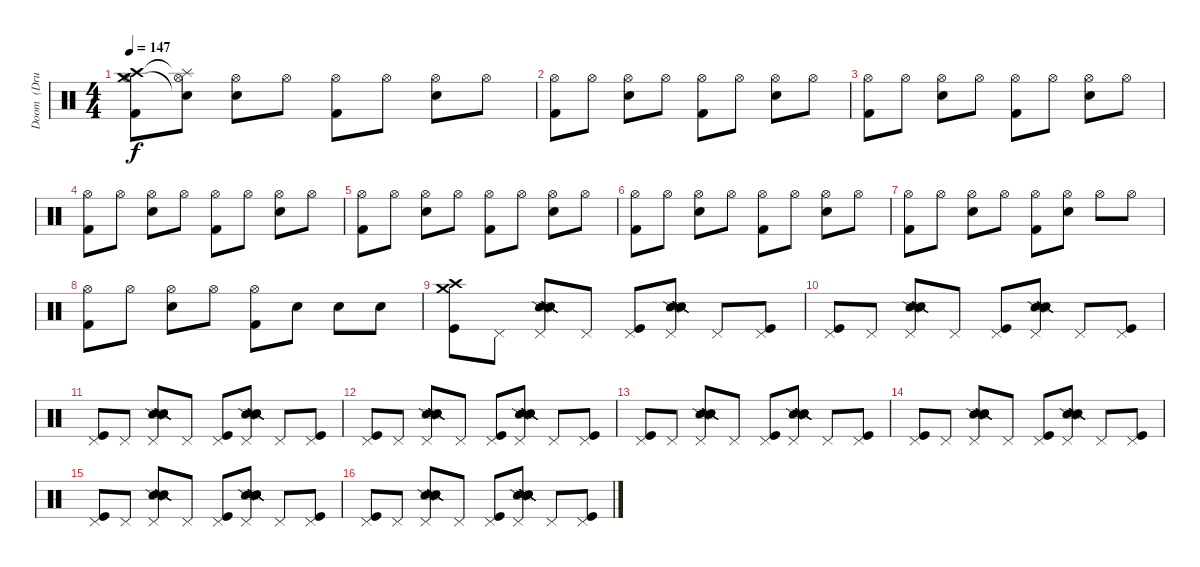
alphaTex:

\track ("Doom  (Drums)" "Doom  (Dru") {instrument percussion}
\staff {score}
\articulation defaults
\ts (4 4)
\tempo 147
\clef neutral
\ks c
("Crash high (hit)" "Hi-Hat (open)" "Crash medium (hit)" "Kick (hit) 2").8{dy f} ("Splash (hit)"{t} "Hi-Hat (open)" "Snare (hit)"{t}).8 ("Hi-Hat (open)" "Electric Snare (hit)").8 "Hi-Hat (open)".8 ("Hi-Hat (open)" "Kick (hit) 2").8 "Hi-Hat (open)".8 ("Hi-Hat (open)" "Electric Snare (hit)").8 "Hi-Hat (open)".8 |
("Hi-Hat (open)" "Kick (hit) 2").8 "Hi-Hat (open)".8 ("Hi-Hat (open)" "Electric Snare (hit)").8 "Hi-Hat (open)".8 ("Hi-Hat (open)" "Kick (hit) 2").8 "Hi-Hat (open)".8 ("Hi-Hat (open)" "Electric Snare (hit)").8 "Hi-Hat (open)".8 |
("Hi-Hat (open)" "Kick (hit) 2").8 "Hi-Hat (open)".8 ("Hi-Hat (open)" "Electric Snare (hit)").8 "Hi-Hat (open)".8 ("Hi-Hat (open)" "Kick (hit) 2").8 "Hi-Hat (open)".8 ("Hi-Hat (open)" "Electric Snare (hit)").8 "Hi-Hat (open)".8 |
("Hi-Hat (open)" "Kick (hit) 2").8 "Hi-Hat (open)".8 ("Hi-Hat (open)" "Electric Snare (hit)").8 "Hi-Hat (open)".8 ("Hi-Hat (open)" "Kick (hit) 2").8 "Hi-Hat (open)".8 ("Hi-Hat (open)" "Electric Snare (hit)").8 "Hi-Hat (open)".8 |
("Hi-Hat (open)" "Kick (hit) 2").8 "Hi-Hat (open)".8 ("Hi-Hat (open)" "Electric Snare (hit)").8 "Hi-Hat (open)".8 ("Hi-Hat (open)" "Kick (hit) 2").8 "Hi-Hat (open)".8 ("Hi-Hat (open)" "Electric Snare (hit)").8 "Hi-Hat (open)".8 |
("Hi-Hat (open)" "Kick (hit) 2").8 "Hi-Hat (open)".8 ("Hi-Hat (open)" "Electric Snare (hit)").8 "Hi-Hat (open)".8 ("Hi-Hat (open)" "Kick (hit) 2").8 "Hi-Hat (open)".8 ("Hi-Hat (open)" "Electric Snare (hit)").8 "Hi-Hat (open)".8 |
("Hi-Hat (open)" "Kick (hit) 2").8 "Hi-Hat (open)".8 ("Hi-Hat (open)" "Electric Snare (hit)").8 "Hi-Hat (open)".8 ("Hi-Hat (open)" "Kick (hit) 2").8 ("Hi-Hat (open)" "Electric Snare (hit)").8 "Hi-Hat (open)".8 "Hi-Hat (open)".8 |
("Hi-Hat (open)" "Kick (hit) 2").8 "Hi-Hat (open)".8 ("Hi-Hat (open)" "Electric Snare (hit)").8 "Hi-Hat (open)".8 ("Hi-Hat (open)" "Kick (hit) 2").8 "Electric Snare (hit)".8 "Electric Snare (hit)".8 "Electric Snare (hit)".8 |
("Crash medium (hit)" "Crash high (hit)" "Kick (hit)").8 "Pedal Hi-Hat (hit)".8 ("Pedal Hi-Hat (hit)" "Snare (side stick) 2" "Snare (side stick) 2" "Snare (side stick) 2" "Snare (side stick) 2" "Snare (side stick) 2").8 "Pedal Hi-Hat (hit)".8 ("Pedal Hi-Hat (hit)" "Kick (hit)").8 ("Pedal Hi-Hat (hit)" "Snare (side stick) 2" "Snare (side stick) 2" "Snare (side stick) 2" "Snare (side stick) 2" "Snare (side stick) 2").8 "Pedal Hi-Hat (hit)".8 ("Pedal Hi-Hat (hit)" "Kick (hit)").8 |
("Pedal Hi-Hat (hit)" "Kick (hit)").8 "Pedal Hi-Hat (hit)".8 ("Pedal Hi-Hat (hit)" "Snare (side stick) 2" "Snare (side stick) 2" "Snare (side stick) 2" "Snare (side stick) 2" "Snare (side stick) 2").8 "Pedal Hi-Hat (hit)".8 ("Pedal Hi-Hat (hit)" "Kick (hit)").8 ("Pedal Hi-Hat (hit)" "Snare (side stick) 2" "Snare (side stick) 2" "Snare (side stick) 2" "Snare (side stick) 2" "Snare (side stick) 2").8 "Pedal Hi-Hat (hit)".8 ("Pedal Hi-Hat (hit)" "Kick (hit)").8 |
("Pedal Hi-Hat (hit)" "Kick (hit)").8 "Pedal Hi-Hat (hit)".8 ("Pedal Hi-Hat (hit)" "Snare (side stick) 2" "Snare (side stick) 2" "Snare (side stick) 2" "Snare (side stick) 2" "Snare (side stick) 2").8 "Pedal Hi-Hat (hit)".8 ("Pedal Hi-Hat (hit)" "Kick (hit)").8 ("Pedal Hi-Hat (hit)" "Snare (side stick) 2" "Snare (side stick) 2" "Snare (side stick) 2" "Snare (side stick) 2" "Snare (side stick) 2").8 "Pedal Hi-Hat (hit)".8 ("Pedal Hi-Hat (hit)" "Kick (hit)").8 |
("Pedal Hi-Hat (hit)" "Kick (hit)").8 "Pedal Hi-Hat (hit)".8 ("Pedal Hi-Hat (hit)" "Snare (side stick) 2" "Snare (side stick) 2" "Snare (side stick) 2" "Snare (side stick) 2" "Snare (side stick) 2").8 "Pedal Hi-Hat (hit)".8 ("Pedal Hi-Hat (hit)" "Kick (hit)").8 ("Pedal Hi-Hat (hit)" "Snare (side stick) 2" "Snare (side stick) 2" "Snare (side stick) 2" "Snare (side stick) 2" "Snare (side stick) 2").8 "Pedal Hi-Hat (hit)".8 ("Pedal Hi-Hat (hit)" "Kick (hit)").8 |
("Pedal Hi-Hat (hit)" "Kick (hit)").8 "Pedal Hi-Hat (hit)".8 ("Pedal Hi-Hat (hit)" "Snare (side stick) 2" "Snare (side stick) 2" "Snare (side stick) 2" "Snare (side stick) 2" "Snare (side stick) 2").8 "Pedal Hi-Hat (hit)".8 ("Pedal Hi-Hat (hit)" "Kick (hit)").8 ("Pedal Hi-Hat (hit)" "Snare (side stick) 2" "Snare (side stick) 2" "Snare (side stick) 2" "Snare (side stick) 2" "Snare (side stick) 2").8 "Pedal Hi-Hat (hit)".8 ("Pedal Hi-Hat (hit)" "Kick (hit)").8 |
("Pedal Hi-Hat (hit)" "Kick (hit)").8 "Pedal Hi-Hat (hit)".8 ("Pedal Hi-Hat (hit)" "Snare (side stick) 2" "Snare (side stick) 2" "Snare (side stick) 2" "Snare (side stick) 2" "Snare (side stick) 2").8 "Pedal Hi-Hat (hit)".8 ("Pedal Hi-Hat (hit)" "Kick (hit)").8 ("Pedal Hi-Hat (hit)" "Snare (side stick) 2" "Snare (side stick) 2" "Snare (side stick) 2" "Snare (side stick) 2" "Snare (side stick) 2").8 "Pedal Hi-Hat (hit)".8 ("Pedal Hi-Hat (hit)" "Kick (hit)").8 |
("Pedal Hi-Hat (hit)" "Kick (hit)").8 "Pedal Hi-Hat (hit)".8 ("Pedal Hi-Hat (hit)" "Snare (side stick) 2" "Snare (side stick) 2" "Snare (side stick) 2" "Snare (side stick) 2" "Snare (side stick) 2").8 "Pedal Hi-Hat (hit)".8 ("Pedal Hi-Hat (hit)" "Kick (hit)").8 ("Pedal Hi-Hat (hit)" "Snare (side stick) 2" "Snare (side stick) 2" "Snare (side stick) 2" "Snare (side stick) 2" "Snare (side stick) 2").8 "Pedal Hi-Hat (hit)".8 ("Pedal Hi-Hat (hit)" "Kick (hit)").8 |
("Pedal Hi-Hat (hit)" "Kick (hit)").8 "Pedal Hi-Hat (hit)".8 ("Pedal Hi-Hat (hit)" "Snare (side stick) 2" "Snare (side stick) 2" "Snare (side stick) 2" "Snare (side stick) 2" "Snare (side stick) 2").8 "Pedal Hi-Hat (hit)".8 ("Pedal Hi-Hat (hit)" "Kick (hit)").8 ("Pedal Hi-Hat (hit)" "Snare (side stick) 2" "Snare (side stick) 2" "Snare (side stick) 2" "Snare (side stick) 2" "Snare (side stick) 2").8 "Pedal Hi-Hat (hit)".8 ("Pedal Hi-Hat (hit)" "Kick (hit)").8
